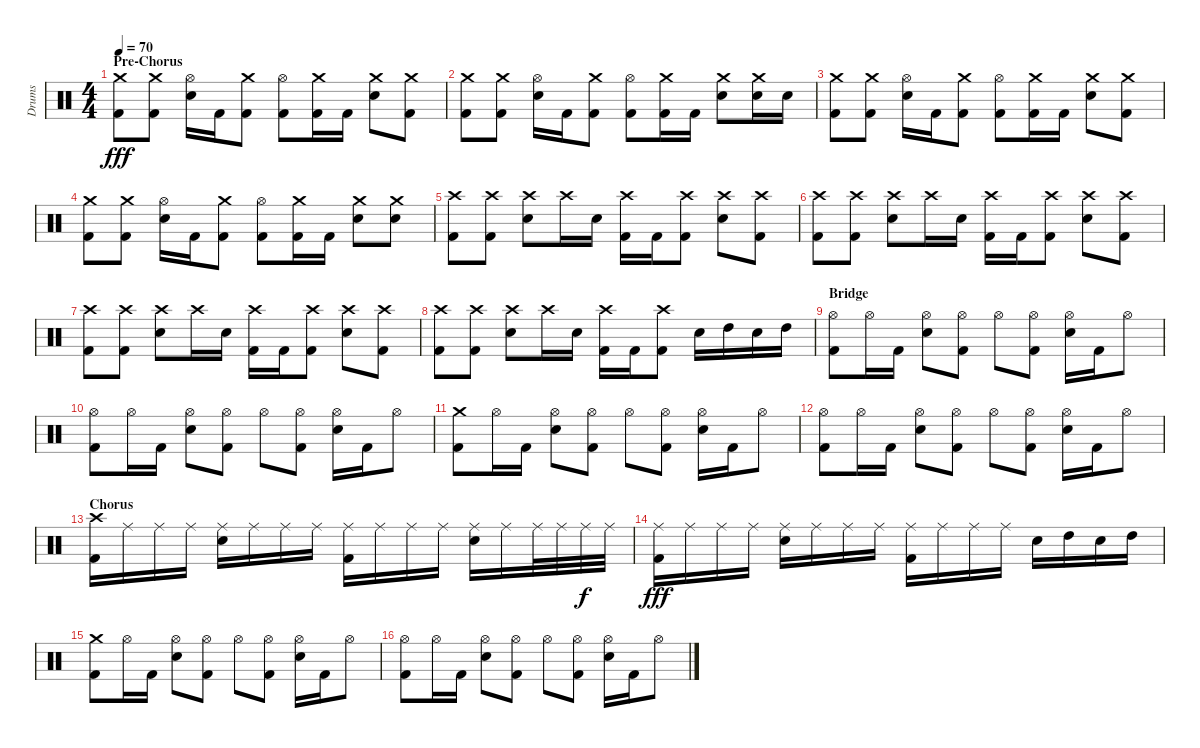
\track ("Drums" "Drums") {instrument percussion}
\staff {score}
\articulation defaults
\ts (4 4)
\section ("" "Pre-Chorus")
\tempo 70
\clef neutral
\ks c
("Crash medium (hit)" "Kick (hit) 2").8{dy fff} ("Crash medium (hit)" "Kick (hit) 2").8 ("Hi-Hat (open)" "Electric Snare (hit)").16 "Kick (hit) 2".16 ("Crash medium (hit)" "Kick (hit) 2").8 ("Hi-Hat (open)" "Kick (hit) 2").8 ("Crash medium (hit)" "Kick (hit) 2").16 "Kick (hit) 2".16 ("Crash medium (hit)" "Electric Snare (hit)").8 ("Crash medium (hit)" "Kick (hit) 2").8 |
("Crash medium (hit)" "Kick (hit) 2").8 ("Crash medium (hit)" "Kick (hit) 2").8 ("Hi-Hat (open)" "Electric Snare (hit)").16 "Kick (hit) 2".16 ("Crash medium (hit)" "Kick (hit) 2").8 ("Hi-Hat (open)" "Kick (hit) 2").8 ("Crash medium (hit)" "Kick (hit) 2").16 "Kick (hit) 2".16 ("Crash medium (hit)" "Electric Snare (hit)").8 ("Crash medium (hit)" "Electric Snare (hit)").16 "Electric Snare (hit)".16 |
("Crash medium (hit)" "Kick (hit) 2").8 ("Crash medium (hit)" "Kick (hit) 2").8 ("Hi-Hat (open)" "Electric Snare (hit)").16 "Kick (hit) 2".16 ("Crash medium (hit)" "Kick (hit) 2").8 ("Hi-Hat (open)" "Kick (hit) 2").8 ("Crash medium (hit)" "Kick (hit) 2").16 "Kick (hit) 2".16 ("Crash medium (hit)" "Electric Snare (hit)").8 ("Crash medium (hit)" "Kick (hit) 2").8 |
("Crash medium (hit)" "Kick (hit) 2").8 ("Crash medium (hit)" "Kick (hit) 2").8 ("Hi-Hat (open)" "Electric Snare (hit)").16 "Kick (hit) 2".16 ("Crash medium (hit)" "Kick (hit) 2").8 ("Hi-Hat (open)" "Kick (hit) 2").8 ("Crash medium (hit)" "Kick (hit) 2").16 "Kick (hit) 2".16 ("Crash medium (hit)" "Electric Snare (hit)").8 ("Crash medium (hit)" "Electric Snare (hit)").8 |
("Crash high (hit)" "Kick (hit) 2").8 ("Crash high (hit)" "Kick (hit) 2").8 ("Crash high (hit)" "Electric Snare (hit)").8 "Crash high (hit)".16 "Electric Snare (hit)".16 ("Crash high (hit)" "Kick (hit) 2").16 "Kick (hit) 2".16 ("Crash high (hit)" "Kick (hit) 2").8 ("Crash high (hit)" "Electric Snare (hit)").8 ("Crash high (hit)" "Kick (hit) 2").8 |
("Crash high (hit)" "Kick (hit) 2").8 ("Crash high (hit)" "Kick (hit) 2").8 ("Crash high (hit)" "Electric Snare (hit)").8 "Crash high (hit)".16 "Electric Snare (hit)".16 ("Crash high (hit)" "Kick (hit) 2").16 "Kick (hit) 2".16 ("Crash high (hit)" "Kick (hit) 2").8 ("Crash high (hit)" "Electric Snare (hit)").8 ("Crash high (hit)" "Kick (hit) 2").8 |
("Crash high (hit)" "Kick (hit) 2").8 ("Crash high (hit)" "Kick (hit) 2").8 ("Crash high (hit)" "Electric Snare (hit)").8 "Crash high (hit)".16 "Electric Snare (hit)".16 ("Crash high (hit)" "Kick (hit) 2").16 "Kick (hit) 2".16 ("Crash high (hit)" "Kick (hit) 2").8 ("Crash high (hit)" "Electric Snare (hit)").8 ("Crash high (hit)" "Kick (hit) 2").8 |
("Crash high (hit)" "Kick (hit) 2").8 ("Crash high (hit)" "Kick (hit) 2").8 ("Crash high (hit)" "Electric Snare (hit)").8 "Crash high (hit)".16 "Electric Snare (hit)".16 ("Crash high (hit)" "Kick (hit) 2").16 "Kick (hit) 2".16 ("Crash high (hit)" "Kick (hit) 2").8 "Electric Snare (hit)".16 "High Tom (hit)".16 "Electric Snare (hit)".16 "High Tom (hit)".16 |
\section ("" "Bridge")
("Hi-Hat (open)" "Kick (hit) 2").8 "Hi-Hat (open)".16 "Kick (hit) 2".16 ("Hi-Hat (open)" "Electric Snare (hit)").8 ("Hi-Hat (open)" "Kick (hit) 2").8 "Hi-Hat (open)".8 ("Hi-Hat (open)" "Kick (hit) 2").8 ("Hi-Hat (open)" "Electric Snare (hit)").16 "Kick (hit) 2".16 "Hi-Hat (open)".8 |
("Hi-Hat (open)" "Kick (hit) 2").8 "Hi-Hat (open)".16 "Kick (hit) 2".16 ("Hi-Hat (open)" "Electric Snare (hit)").8 ("Hi-Hat (open)" "Kick (hit) 2").8 "Hi-Hat (open)".8 ("Hi-Hat (open)" "Kick (hit) 2").8 ("Hi-Hat (open)" "Electric Snare (hit)").16 "Kick (hit) 2".16 "Hi-Hat (open)".8 |
("Crash medium (hit)" "Kick (hit) 2").8 "Hi-Hat (open)".16 "Kick (hit) 2".16 ("Hi-Hat (open)" "Electric Snare (hit)").8 ("Hi-Hat (open)" "Kick (hit) 2").8 "Hi-Hat (open)".8 ("Hi-Hat (open)" "Kick (hit) 2").8 ("Hi-Hat (open)" "Electric Snare (hit)").16 "Kick (hit) 2".16 "Hi-Hat (open)".8 |
("Hi-Hat (open)" "Kick (hit) 2").8 "Hi-Hat (open)".16 "Kick (hit) 2".16 ("Hi-Hat (open)" "Electric Snare (hit)").8 ("Hi-Hat (open)" "Kick (hit) 2").8 "Hi-Hat (open)".8 ("Hi-Hat (open)" "Kick (hit) 2").8 ("Hi-Hat (open)" "Electric Snare (hit)").16 "Kick (hit) 2".16 "Hi-Hat (open)".8 |
\section ("" "Chorus")
("Crash high (hit)" "Kick (hit) 2").16 "Ride (middle)".16 "Ride (middle)".16 "Ride (middle)".16 ("Ride (middle)" "Electric Snare (hit)").16 "Ride (middle)".16 "Ride (middle)".16 "Ride (middle)".16 ("Ride (middle)" "Kick (hit) 2").16 "Ride (middle)".16 "Ride (middle)".16 "Ride (middle)".16 ("Ride (middle)" "Electric Snare (hit)").16 "Ride (middle)".16 "Ride (middle)".32 "Ride (middle)".32 "Ride (middle)".32{dy f} "Ride (middle)".32 |
("Ride (middle)" "Kick (hit) 2").16{dy fff} "Ride (middle)".16 "Ride (middle)".16 "Ride (middle)".16 ("Ride (middle)" "Electric Snare (hit)").16 "Ride (middle)".16 "Ride (middle)".16 "Ride (middle)".16 ("Ride (middle)" "Kick (hit) 2").16 "Ride (middle)".16 "Ride (middle)".16 "Ride (middle)".16 "Electric Snare (hit)".16 "High Tom (hit)".16 "Electric Snare (hit)".16 "High Tom (hit)".16 |
("Crash medium (hit)" "Kick (hit) 2").8 "Hi-Hat (open)".16 "Kick (hit) 2".16 ("Hi-Hat (open)" "Electric Snare (hit)").8 ("Hi-Hat (open)" "Kick (hit) 2").8 "Hi-Hat (open)".8 ("Hi-Hat (open)" "Kick (hit) 2").8 ("Hi-Hat (open)" "Electric Snare (hit)").16 "Kick (hit) 2".16 "Hi-Hat (open)".8 |
("Hi-Hat (open)" "Kick (hit) 2").8 "Hi-Hat (open)".16 "Kick (hit) 2".16 ("Hi-Hat (open)" "Electric Snare (hit)").8 ("Hi-Hat (open)" "Kick (hit) 2").8 "Hi-Hat (open)".8 ("Hi-Hat (open)" "Kick (hit) 2").8 ("Hi-Hat (open)" "Electric Snare (hit)").16 "Kick (hit) 2".16 "Hi-Hat (open)".8
